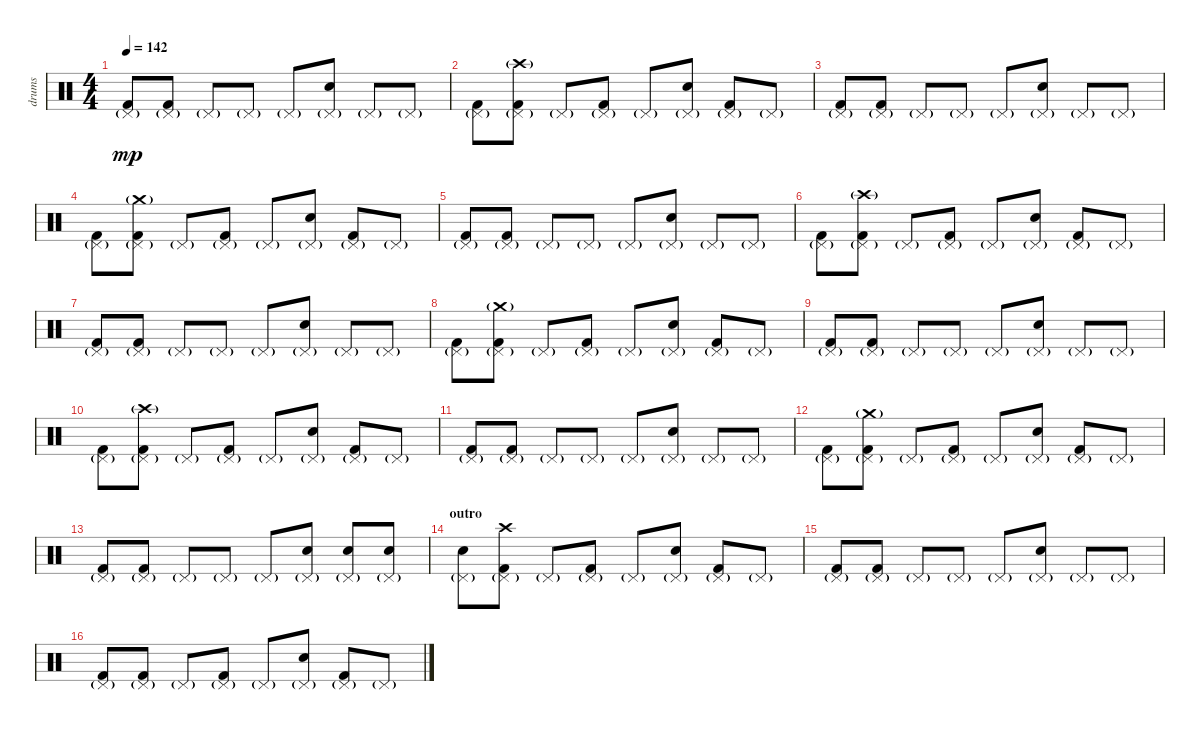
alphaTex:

\track ("drums" "drums") {instrument percussion}
\staff {score}
\articulation defaults
\ts (4 4)
\tempo 142
\clef neutral
\ks c
("Kick (hit) 2" "Pedal Hi-Hat (hit)"{g}).8{dy mp} ("Kick (hit) 2" "Pedal Hi-Hat (hit)"{g}).8 "Pedal Hi-Hat (hit)"{g}.8 "Pedal Hi-Hat (hit)"{g}.8 "Pedal Hi-Hat (hit)"{g}.8 ("Snare (hit) 2" "Pedal Hi-Hat (hit)"{g}).8 "Pedal Hi-Hat (hit)"{g}.8 "Pedal Hi-Hat (hit)"{g}.8 |
("Kick (hit) 2" "Pedal Hi-Hat (hit)"{g}).8 ("Kick (hit) 2" "Crash high (hit)"{g} "Pedal Hi-Hat (hit)"{g}).8 "Pedal Hi-Hat (hit)"{g}.8 ("Kick (hit) 2" "Pedal Hi-Hat (hit)"{g}).8 "Pedal Hi-Hat (hit)"{g}.8 ("Snare (hit) 2" "Pedal Hi-Hat (hit)"{g}).8 ("Kick (hit) 2" "Pedal Hi-Hat (hit)"{g}).8 "Pedal Hi-Hat (hit)"{g}.8 |
("Kick (hit) 2" "Pedal Hi-Hat (hit)"{g}).8 ("Kick (hit) 2" "Pedal Hi-Hat (hit)"{g}).8 "Pedal Hi-Hat (hit)"{g}.8 "Pedal Hi-Hat (hit)"{g}.8 "Pedal Hi-Hat (hit)"{g}.8 ("Snare (hit) 2" "Pedal Hi-Hat (hit)"{g}).8 "Pedal Hi-Hat (hit)"{g}.8 "Pedal Hi-Hat (hit)"{g}.8 |
("Kick (hit) 2" "Pedal Hi-Hat (hit)"{g}).8 ("Kick (hit) 2" "Crash medium (hit)"{g} "Pedal Hi-Hat (hit)"{g}).8 "Pedal Hi-Hat (hit)"{g}.8 ("Kick (hit) 2" "Pedal Hi-Hat (hit)"{g}).8 "Pedal Hi-Hat (hit)"{g}.8 ("Snare (hit) 2" "Pedal Hi-Hat (hit)"{g}).8 ("Kick (hit) 2" "Pedal Hi-Hat (hit)"{g}).8 "Pedal Hi-Hat (hit)"{g}.8 |
("Kick (hit) 2" "Pedal Hi-Hat (hit)"{g}).8 ("Kick (hit) 2" "Pedal Hi-Hat (hit)"{g}).8 "Pedal Hi-Hat (hit)"{g}.8 "Pedal Hi-Hat (hit)"{g}.8 "Pedal Hi-Hat (hit)"{g}.8 ("Snare (hit) 2" "Pedal Hi-Hat (hit)"{g}).8 "Pedal Hi-Hat (hit)"{g}.8 "Pedal Hi-Hat (hit)"{g}.8 |
("Kick (hit) 2" "Pedal Hi-Hat (hit)"{g}).8 ("Kick (hit) 2" "Crash high (hit)"{g} "Pedal Hi-Hat (hit)"{g}).8 "Pedal Hi-Hat (hit)"{g}.8 ("Kick (hit) 2" "Pedal Hi-Hat (hit)"{g}).8 "Pedal Hi-Hat (hit)"{g}.8 ("Snare (hit) 2" "Pedal Hi-Hat (hit)"{g}).8 ("Kick (hit) 2" "Pedal Hi-Hat (hit)"{g}).8 "Pedal Hi-Hat (hit)"{g}.8 |
("Kick (hit) 2" "Pedal Hi-Hat (hit)"{g}).8 ("Kick (hit) 2" "Pedal Hi-Hat (hit)"{g}).8 "Pedal Hi-Hat (hit)"{g}.8 "Pedal Hi-Hat (hit)"{g}.8 "Pedal Hi-Hat (hit)"{g}.8 ("Snare (hit) 2" "Pedal Hi-Hat (hit)"{g}).8 "Pedal Hi-Hat (hit)"{g}.8 "Pedal Hi-Hat (hit)"{g}.8 |
("Kick (hit) 2" "Pedal Hi-Hat (hit)"{g}).8 ("Kick (hit) 2" "Crash medium (hit)"{g} "Pedal Hi-Hat (hit)"{g}).8 "Pedal Hi-Hat (hit)"{g}.8 ("Kick (hit) 2" "Pedal Hi-Hat (hit)"{g}).8 "Pedal Hi-Hat (hit)"{g}.8 ("Snare (hit) 2" "Pedal Hi-Hat (hit)"{g}).8 ("Kick (hit) 2" "Pedal Hi-Hat (hit)"{g}).8 "Pedal Hi-Hat (hit)"{g}.8 |
("Kick (hit) 2" "Pedal Hi-Hat (hit)"{g}).8 ("Kick (hit) 2" "Pedal Hi-Hat (hit)"{g}).8 "Pedal Hi-Hat (hit)"{g}.8 "Pedal Hi-Hat (hit)"{g}.8 "Pedal Hi-Hat (hit)"{g}.8 ("Snare (hit) 2" "Pedal Hi-Hat (hit)"{g}).8 "Pedal Hi-Hat (hit)"{g}.8 "Pedal Hi-Hat (hit)"{g}.8 |
("Kick (hit) 2" "Pedal Hi-Hat (hit)"{g}).8 ("Kick (hit) 2" "Crash high (hit)"{g} "Pedal Hi-Hat (hit)"{g}).8 "Pedal Hi-Hat (hit)"{g}.8 ("Kick (hit) 2" "Pedal Hi-Hat (hit)"{g}).8 "Pedal Hi-Hat (hit)"{g}.8 ("Snare (hit) 2" "Pedal Hi-Hat (hit)"{g}).8 ("Kick (hit) 2" "Pedal Hi-Hat (hit)"{g}).8 "Pedal Hi-Hat (hit)"{g}.8 |
("Kick (hit) 2" "Pedal Hi-Hat (hit)"{g}).8 ("Kick (hit) 2" "Pedal Hi-Hat (hit)"{g}).8 "Pedal Hi-Hat (hit)"{g}.8 "Pedal Hi-Hat (hit)"{g}.8 "Pedal Hi-Hat (hit)"{g}.8 ("Snare (hit) 2" "Pedal Hi-Hat (hit)"{g}).8 "Pedal Hi-Hat (hit)"{g}.8 "Pedal Hi-Hat (hit)"{g}.8 |
("Kick (hit) 2" "Pedal Hi-Hat (hit)"{g}).8 ("Kick (hit) 2" "Crash medium (hit)"{g} "Pedal Hi-Hat (hit)"{g}).8 "Pedal Hi-Hat (hit)"{g}.8 ("Kick (hit) 2" "Pedal Hi-Hat (hit)"{g}).8 "Pedal Hi-Hat (hit)"{g}.8 ("Snare (hit) 2" "Pedal Hi-Hat (hit)"{g}).8 ("Kick (hit) 2" "Pedal Hi-Hat (hit)"{g}).8 "Pedal Hi-Hat (hit)"{g}.8 |
("Kick (hit) 2" "Pedal Hi-Hat (hit)"{g}).8 ("Kick (hit) 2" "Pedal Hi-Hat (hit)"{g}).8 "Pedal Hi-Hat (hit)"{g}.8 "Pedal Hi-Hat (hit)"{g}.8 "Pedal Hi-Hat (hit)"{g}.8 ("Snare (hit) 2" "Pedal Hi-Hat (hit)"{g}).8 ("Snare (hit) 2" "Pedal Hi-Hat (hit)"{g}).8 ("Snare (hit) 2" "Pedal Hi-Hat (hit)"{g}).8 |
\section ("" "outro")
("Snare (hit) 2" "Pedal Hi-Hat (hit)"{g}).8 ("Kick (hit) 2" "Crash high (hit)" "Pedal Hi-Hat (hit)"{g}).8 "Pedal Hi-Hat (hit)"{g}.8 ("Kick (hit) 2" "Pedal Hi-Hat (hit)"{g}).8 "Pedal Hi-Hat (hit)"{g}.8 ("Snare (hit) 2" "Pedal Hi-Hat (hit)"{g}).8 ("Kick (hit) 2" "Pedal Hi-Hat (hit)"{g}).8 "Pedal Hi-Hat (hit)"{g}.8 |
("Kick (hit) 2" "Pedal Hi-Hat (hit)"{g}).8 ("Kick (hit) 2" "Pedal Hi-Hat (hit)"{g}).8 "Pedal Hi-Hat (hit)"{g}.8 "Pedal Hi-Hat (hit)"{g}.8 "Pedal Hi-Hat (hit)"{g}.8 ("Snare (hit) 2" "Pedal Hi-Hat (hit)"{g}).8 "Pedal Hi-Hat (hit)"{g}.8 "Pedal Hi-Hat (hit)"{g}.8 |
("Kick (hit) 2" "Pedal Hi-Hat (hit)"{g}).8 ("Kick (hit) 2" "Pedal Hi-Hat (hit)"{g}).8 "Pedal Hi-Hat (hit)"{g}.8 ("Kick (hit) 2" "Pedal Hi-Hat (hit)"{g}).8 "Pedal Hi-Hat (hit)"{g}.8 ("Snare (hit) 2" "Pedal Hi-Hat (hit)"{g}).8 ("Kick (hit) 2" "Pedal Hi-Hat (hit)"{g}).8 "Pedal Hi-Hat (hit)"{g}.8
